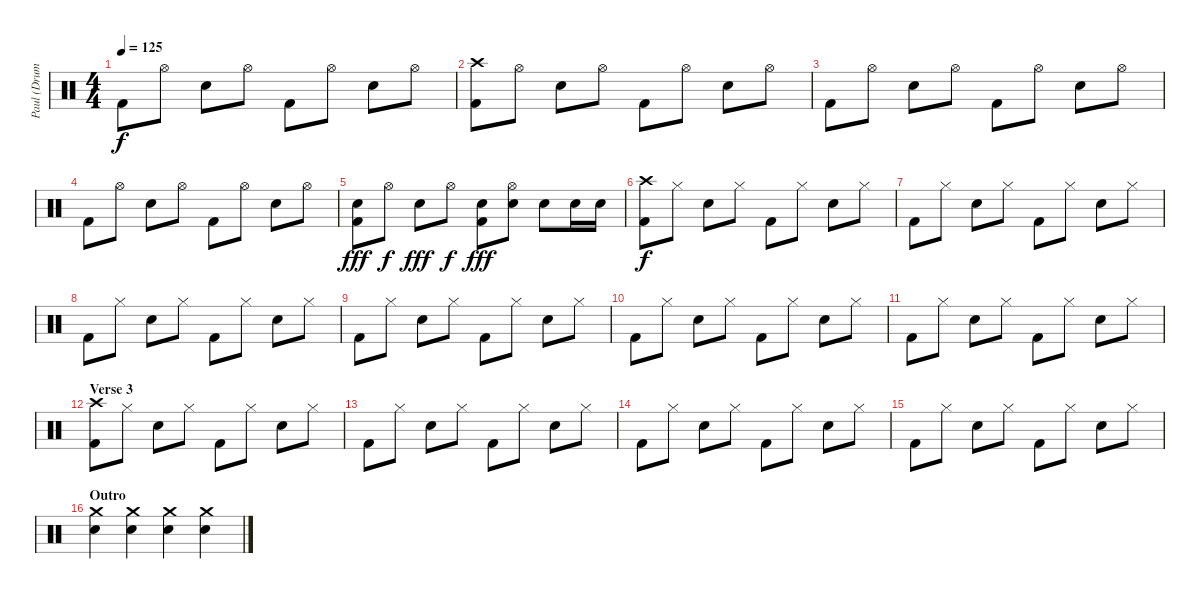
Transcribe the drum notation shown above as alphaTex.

\track ("Paul (Drums)" "Paul (Drum") {instrument percussion}
\staff {score}
\articulation defaults
\ts (4 4)
\tempo 125
\clef neutral
\ks c "Kick (hit) 2".8{dy f} "Hi-Hat (open)".8 "Snare (hit) 2".8 "Hi-Hat (open)".8 "Kick (hit) 2".8 "Hi-Hat (open)".8 "Snare (hit) 2".8 "Hi-Hat (open)".8
|
("Crash high (hit)" "Kick (hit) 2").8 "Hi-Hat (open)".8 "Snare (hit) 2".8 "Hi-Hat (open)".8 "Kick (hit) 2".8 "Hi-Hat (open)".8 "Snare (hit) 2".8 "Hi-Hat (open)".8 |
"Kick (hit) 2".8 "Hi-Hat (open)".8 "Snare (hit) 2".8 "Hi-Hat (open)".8 "Kick (hit) 2".8 "Hi-Hat (open)".8 "Snare (hit) 2".8 "Hi-Hat (open)".8 |
"Kick (hit) 2".8 "Hi-Hat (open)".8 "Snare (hit) 2".8 "Hi-Hat (open)".8 "Kick (hit) 2".8 "Hi-Hat (open)".8 "Snare (hit) 2".8 "Hi-Hat (open)".8 |
("Snare (hit) 2" "Kick (hit) 2").8{dy fff} "Hi-Hat (open)".8{dy f} "Snare (hit) 2".8{dy fff} "Hi-Hat (open)".8{dy f} ("Snare (hit) 2" "Kick (hit) 2").8{dy fff} ("Hi-Hat (open)" "Snare (hit) 2").8 "Snare (hit) 2".8 "Snare (hit) 2".16 "Snare (hit) 2".16 |
("Crash high (hit)" "Kick (hit) 2").8{dy f} "Hi-Hat (closed)".8 "Snare (hit) 2".8 "Hi-Hat (closed)".8 "Kick (hit) 2".8 "Hi-Hat (closed)".8 "Snare (hit) 2".8 "Hi-Hat (closed)".8 |
"Kick (hit) 2".8 "Hi-Hat (closed)".8 "Snare (hit) 2".8 "Hi-Hat (closed)".8 "Kick (hit) 2".8 "Hi-Hat (closed)".8 "Snare (hit) 2".8 "Hi-Hat (closed)".8 |
"Kick (hit) 2".8 "Hi-Hat (closed)".8 "Snare (hit) 2".8 "Hi-Hat (closed)".8 "Kick (hit) 2".8 "Hi-Hat (closed)".8 "Snare (hit) 2".8 "Hi-Hat (closed)".8 |
"Kick (hit) 2".8 "Hi-Hat (closed)".8 "Snare (hit) 2".8 "Hi-Hat (closed)".8 "Kick (hit) 2".8 "Hi-Hat (closed)".8 "Snare (hit) 2".8 "Hi-Hat (closed)".8 |
"Kick (hit) 2".8 "Hi-Hat (closed)".8 "Snare (hit) 2".8 "Hi-Hat (closed)".8 "Kick (hit) 2".8 "Hi-Hat (closed)".8 "Snare (hit) 2".8 "Hi-Hat (closed)".8 |
"Kick (hit) 2".8 "Hi-Hat (closed)".8 "Snare (hit) 2".8 "Hi-Hat (closed)".8 "Kick (hit) 2".8 "Hi-Hat (closed)".8 "Snare (hit) 2".8 "Hi-Hat (closed)".8 |
\section ("" "Verse 3")
("Crash high (hit)" "Kick (hit) 2").8 "Hi-Hat (closed)".8 "Snare (hit) 2".8 "Hi-Hat (closed)".8 "Kick (hit) 2".8 "Hi-Hat (closed)".8 "Snare (hit) 2".8 "Hi-Hat (closed)".8 |
"Kick (hit) 2".8 "Hi-Hat (closed)".8 "Snare (hit) 2".8 "Hi-Hat (closed)".8 "Kick (hit) 2".8 "Hi-Hat (closed)".8 "Snare (hit) 2".8 "Hi-Hat (closed)".8 |
"Kick (hit) 2".8 "Hi-Hat (closed)".8 "Snare (hit) 2".8 "Hi-Hat (closed)".8 "Kick (hit) 2".8 "Hi-Hat (closed)".8 "Snare (hit) 2".8 "Hi-Hat (closed)".8 |
"Kick (hit) 2".8 "Hi-Hat (closed)".8 "Snare (hit) 2".8 "Hi-Hat (closed)".8 "Kick (hit) 2".8 "Hi-Hat (closed)".8 "Snare (hit) 2".8 "Hi-Hat (closed)".8 |
\section ("" "Outro")
("Crash medium (hit)" "Snare (hit) 2").4 ("Crash medium (hit)" "Snare (hit) 2").4 ("Crash medium (hit)" "Snare (hit) 2").4 ("Crash medium (hit)" "Snare (hit) 2").4
